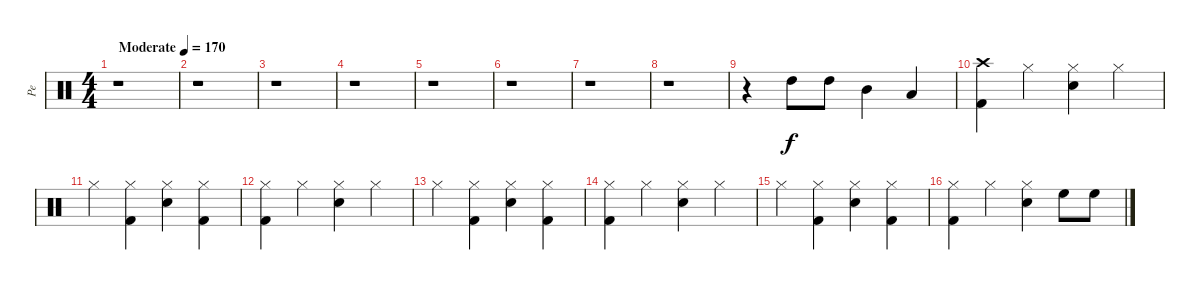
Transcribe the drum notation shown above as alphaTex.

\track ("Pe" "Pe") {instrument percussion}
\staff {score}
\articulation defaults
\ts (4 4)
\tempo (170 "Moderate")
\clef neutral
\ks c
r.1{dy f} |
r.1 |
r.1 |
r.1 |
r.1 |
r.1 |
r.1 |
r.1 |
r.4 "High Tom (hit)".8 "High Tom (hit)".8 "Mid Tom (hit)".4 "Low Tom (hit)".4 |
("Kick (hit) 2" "Crash high (hit)").4 "Hi-Hat (closed)".4 ("Snare (hit) 2" "Hi-Hat (closed)").4 "Hi-Hat (closed)".4 |
"Hi-Hat (closed)".4 ("Kick (hit) 2" "Hi-Hat (closed)").4 ("Snare (hit) 2" "Hi-Hat (closed)").4 ("Kick (hit) 2" "Hi-Hat (closed)").4 |
("Kick (hit) 2" "Hi-Hat (closed)").4 "Hi-Hat (closed)".4 ("Snare (hit) 2" "Hi-Hat (closed)").4 "Hi-Hat (closed)".4 |
"Hi-Hat (closed)".4 ("Kick (hit) 2" "Hi-Hat (closed)").4 ("Snare (hit) 2" "Hi-Hat (closed)").4 ("Kick (hit) 2" "Hi-Hat (closed)").4 |
("Kick (hit) 2" "Hi-Hat (closed)").4 "Hi-Hat (closed)".4 ("Snare (hit) 2" "Hi-Hat (closed)").4 "Hi-Hat (closed)".4 |
"Hi-Hat (closed)".4 ("Kick (hit) 2" "Hi-Hat (closed)").4 ("Snare (hit) 2" "Hi-Hat (closed)").4 ("Kick (hit) 2" "Hi-Hat (closed)").4 |
("Kick (hit) 2" "Hi-Hat (closed)").4 "Hi-Hat (closed)".4 ("Snare (hit) 2" "Hi-Hat (closed)").4 "High Floor Tom (hit)".8 "High Floor Tom (hit)".8
